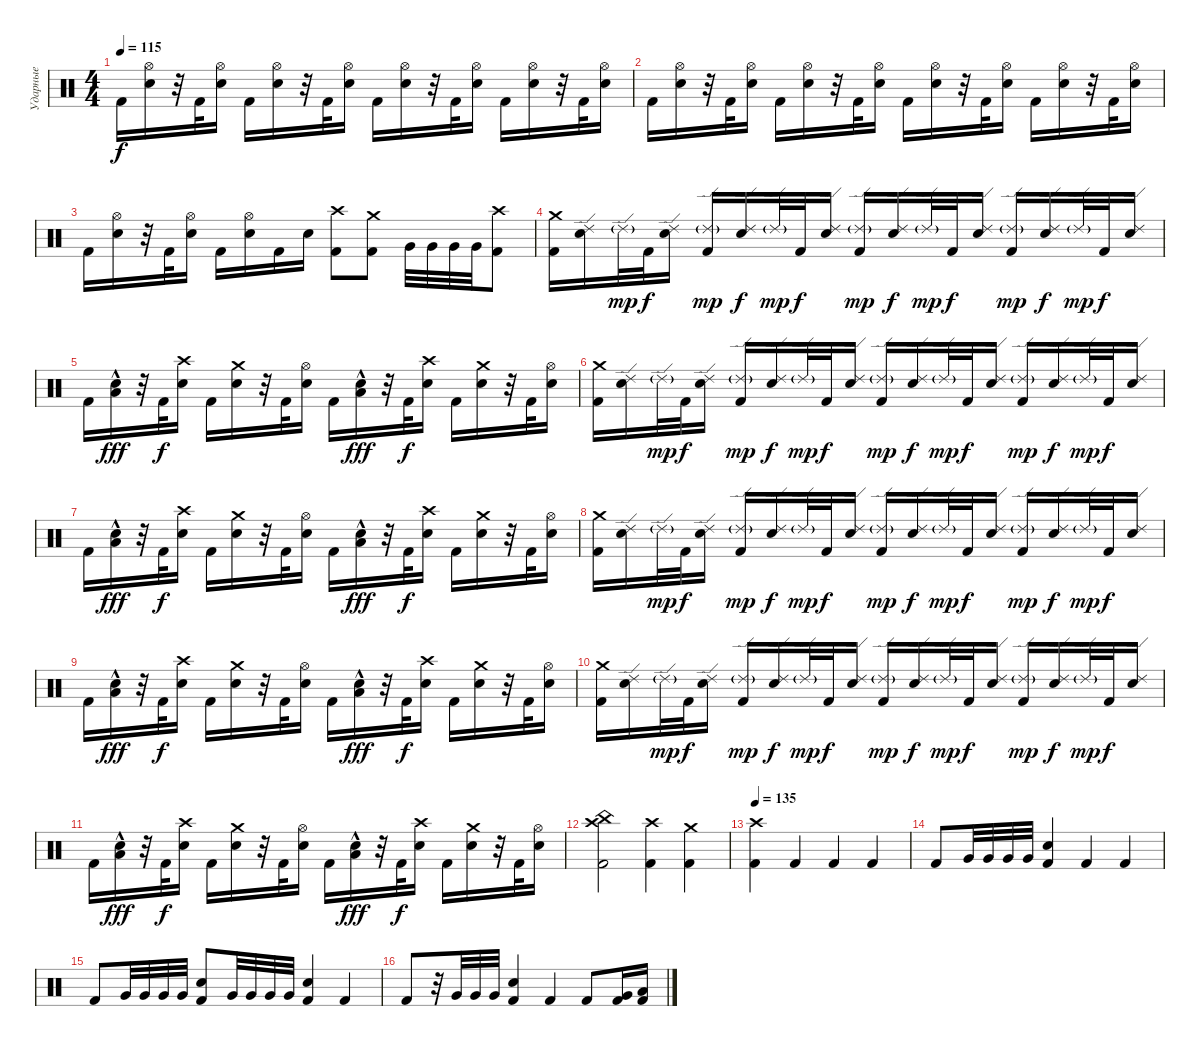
\track ("Ударные" "Ударные") {instrument percussion}
\staff {score}
\articulation defaults
\ts (4 4)
\tempo 115
\clef neutral
\ks c "Kick (hit) 2".16{dy f}
("Hi-Hat (open)" "Electric Snare (hit)").16 r.32 "Kick (hit) 2".32 ("Hi-Hat (open)" "Electric Snare (hit)").16 "Kick (hit) 2".16 ("Hi-Hat (open)" "Electric Snare (hit)").16 r.32 "Kick (hit) 2".32 ("Hi-Hat (open)" "Electric Snare (hit)").16 "Kick (hit) 2".16 ("Hi-Hat (open)" "Electric Snare (hit)").16 r.32 "Kick (hit) 2".32 ("Hi-Hat (open)" "Electric Snare (hit)").16 "Kick (hit) 2".16 ("Hi-Hat (open)" "Electric Snare (hit)").16 r.32 "Kick (hit) 2".32 ("Hi-Hat (open)" "Electric Snare (hit)").16 |
"Kick (hit) 2".16 ("Hi-Hat (open)" "Electric Snare (hit)").16 r.32 "Kick (hit) 2".32 ("Hi-Hat (open)" "Electric Snare (hit)").16 "Kick (hit) 2".16 ("Hi-Hat (open)" "Electric Snare (hit)").16 r.32 "Kick (hit) 2".32 ("Hi-Hat (open)" "Electric Snare (hit)").16 "Kick (hit) 2".16 ("Hi-Hat (open)" "Electric Snare (hit)").16 r.32 "Kick (hit) 2".32 ("Hi-Hat (open)" "Electric Snare (hit)").16 "Kick (hit) 2".16 ("Hi-Hat (open)" "Electric Snare (hit)").16 r.32 "Kick (hit) 2".32 ("Hi-Hat (open)" "Electric Snare (hit)").16 |
"Kick (hit) 2".16 ("Hi-Hat (open)" "Electric Snare (hit)").16 r.32 "Kick (hit) 2".32 ("Hi-Hat (open)" "Electric Snare (hit)").16 "Kick (hit) 2".16 ("Hi-Hat (open)" "Electric Snare (hit)").16 "Kick (hit) 2".16 "Electric Snare (hit)".16 ("Crash high (hit)" "Kick (hit) 2").8 ("Crash medium (hit)" "Kick (hit) 2").8 "Very Low Tom (hit)".32 "Very Low Tom (hit)".32 "Very Low Tom (hit)".32 "Very Low Tom (hit)".32 ("Crash high (hit)" "Kick (hit) 2").8 |
("Crash medium (hit)" "Kick (hit) 2").16 ("Ride (edge) 2" "Electric Snare (hit)").16 "Ride (edge) 2"{g}.32{dy mp} "Kick (hit) 2".32{dy f} ("Ride (edge) 2" "Electric Snare (hit)").16 ("Ride (edge) 2"{g} "Kick (hit) 2").16{dy mp} ("Ride (edge) 2" "Electric Snare (hit)").16{dy f} "Ride (edge) 2"{g}.32{dy mp} "Kick (hit) 2".32{dy f} ("Ride (edge) 2" "Electric Snare (hit)").16 ("Ride (edge) 2"{g} "Kick (hit) 2").16{dy mp} ("Ride (edge) 2" "Electric Snare (hit)").16{dy f} "Ride (edge) 2"{g}.32{dy mp} "Kick (hit) 2".32{dy f} ("Ride (edge) 2" "Electric Snare (hit)").16 ("Ride (edge) 2"{g} "Kick (hit) 2").16{dy mp} ("Ride (edge) 2" "Electric Snare (hit)").16{dy f} "Ride (edge) 2"{g}.32{dy mp} "Kick (hit) 2".32{dy f} ("Ride (edge) 2" "Electric Snare (hit)").16 |
"Kick (hit) 2".16 ("Low Floor Tom (hit)"{hac} "Electric Snare (hit)").16{dy fff} r.32 "Kick (hit) 2".32{dy f} ("Crash high (hit)" "Electric Snare (hit)").16 "Kick (hit) 2".16 ("Crash medium (hit)" "Electric Snare (hit)").16 r.32 "Kick (hit) 2".32 ("Hi-Hat (open)" "Electric Snare (hit)").16 "Kick (hit) 2".16 ("Low Floor Tom (hit)"{hac} "Electric Snare (hit)").16{dy fff} r.32 "Kick (hit) 2".32{dy f} ("Crash high (hit)" "Electric Snare (hit)").16 "Kick (hit) 2".16 ("Crash medium (hit)" "Electric Snare (hit)").16 r.32 "Kick (hit) 2".32 ("Hi-Hat (open)" "Electric Snare (hit)").16 |
("Crash medium (hit)" "Kick (hit) 2").16 ("Ride (edge) 2" "Electric Snare (hit)").16 "Ride (edge) 2"{g}.32{dy mp} "Kick (hit) 2".32{dy f} ("Ride (edge) 2" "Electric Snare (hit)").16 ("Ride (edge) 2"{g} "Kick (hit) 2").16{dy mp} ("Ride (edge) 2" "Electric Snare (hit)").16{dy f} "Ride (edge) 2"{g}.32{dy mp} "Kick (hit) 2".32{dy f} ("Ride (edge) 2" "Electric Snare (hit)").16 ("Ride (edge) 2"{g} "Kick (hit) 2").16{dy mp} ("Ride (edge) 2" "Electric Snare (hit)").16{dy f} "Ride (edge) 2"{g}.32{dy mp} "Kick (hit) 2".32{dy f} ("Ride (edge) 2" "Electric Snare (hit)").16 ("Ride (edge) 2"{g} "Kick (hit) 2").16{dy mp} ("Ride (edge) 2" "Electric Snare (hit)").16{dy f} "Ride (edge) 2"{g}.32{dy mp} "Kick (hit) 2".32{dy f} ("Ride (edge) 2" "Electric Snare (hit)").16 |
"Kick (hit) 2".16 ("Low Floor Tom (hit)"{hac} "Electric Snare (hit)").16{dy fff} r.32 "Kick (hit) 2".32{dy f} ("Crash high (hit)" "Electric Snare (hit)").16 "Kick (hit) 2".16 ("Crash medium (hit)" "Electric Snare (hit)").16 r.32 "Kick (hit) 2".32 ("Hi-Hat (open)" "Electric Snare (hit)").16 "Kick (hit) 2".16 ("Low Floor Tom (hit)"{hac} "Electric Snare (hit)").16{dy fff} r.32 "Kick (hit) 2".32{dy f} ("Crash high (hit)" "Electric Snare (hit)").16 "Kick (hit) 2".16 ("Crash medium (hit)" "Electric Snare (hit)").16 r.32 "Kick (hit) 2".32 ("Hi-Hat (open)" "Electric Snare (hit)").16 |
("Crash medium (hit)" "Kick (hit) 2").16 ("Ride (edge) 2" "Electric Snare (hit)").16 "Ride (edge) 2"{g}.32{dy mp} "Kick (hit) 2".32{dy f} ("Ride (edge) 2" "Electric Snare (hit)").16 ("Ride (edge) 2"{g} "Kick (hit) 2").16{dy mp} ("Ride (edge) 2" "Electric Snare (hit)").16{dy f} "Ride (edge) 2"{g}.32{dy mp} "Kick (hit) 2".32{dy f} ("Ride (edge) 2" "Electric Snare (hit)").16 ("Ride (edge) 2"{g} "Kick (hit) 2").16{dy mp} ("Ride (edge) 2" "Electric Snare (hit)").16{dy f} "Ride (edge) 2"{g}.32{dy mp} "Kick (hit) 2".32{dy f} ("Ride (edge) 2" "Electric Snare (hit)").16 ("Ride (edge) 2"{g} "Kick (hit) 2").16{dy mp} ("Ride (edge) 2" "Electric Snare (hit)").16{dy f} "Ride (edge) 2"{g}.32{dy mp} "Kick (hit) 2".32{dy f} ("Ride (edge) 2" "Electric Snare (hit)").16 |
"Kick (hit) 2".16 ("Low Floor Tom (hit)"{hac} "Electric Snare (hit)").16{dy fff} r.32 "Kick (hit) 2".32{dy f} ("Crash high (hit)" "Electric Snare (hit)").16 "Kick (hit) 2".16 ("Crash medium (hit)" "Electric Snare (hit)").16 r.32 "Kick (hit) 2".32 ("Hi-Hat (open)" "Electric Snare (hit)").16 "Kick (hit) 2".16 ("Low Floor Tom (hit)"{hac} "Electric Snare (hit)").16{dy fff} r.32 "Kick (hit) 2".32{dy f} ("Crash high (hit)" "Electric Snare (hit)").16 "Kick (hit) 2".16 ("Crash medium (hit)" "Electric Snare (hit)").16 r.32 "Kick (hit) 2".32 ("Hi-Hat (open)" "Electric Snare (hit)").16 |
("Crash medium (hit)" "Kick (hit) 2").16 ("Ride (edge) 2" "Electric Snare (hit)").16 "Ride (edge) 2"{g}.32{dy mp} "Kick (hit) 2".32{dy f} ("Ride (edge) 2" "Electric Snare (hit)").16 ("Ride (edge) 2"{g} "Kick (hit) 2").16{dy mp} ("Ride (edge) 2" "Electric Snare (hit)").16{dy f} "Ride (edge) 2"{g}.32{dy mp} "Kick (hit) 2".32{dy f} ("Ride (edge) 2" "Electric Snare (hit)").16 ("Ride (edge) 2"{g} "Kick (hit) 2").16{dy mp} ("Ride (edge) 2" "Electric Snare (hit)").16{dy f} "Ride (edge) 2"{g}.32{dy mp} "Kick (hit) 2".32{dy f} ("Ride (edge) 2" "Electric Snare (hit)").16 ("Ride (edge) 2"{g} "Kick (hit) 2").16{dy mp} ("Ride (edge) 2" "Electric Snare (hit)").16{dy f} "Ride (edge) 2"{g}.32{dy mp} "Kick (hit) 2".32{dy f} ("Ride (edge) 2" "Electric Snare (hit)").16 |
"Kick (hit) 2".16 ("Low Floor Tom (hit)"{hac} "Electric Snare (hit)").16{dy fff} r.32 "Kick (hit) 2".32{dy f} ("Crash high (hit)" "Electric Snare (hit)").16 "Kick (hit) 2".16 ("Crash medium (hit)" "Electric Snare (hit)").16 r.32 "Kick (hit) 2".32 ("Hi-Hat (open)" "Electric Snare (hit)").16 "Kick (hit) 2".16 ("Low Floor Tom (hit)"{hac} "Electric Snare (hit)").16{dy fff} r.32 "Kick (hit) 2".32{dy f} ("Crash high (hit)" "Electric Snare (hit)").16 "Kick (hit) 2".16 ("Crash medium (hit)" "Electric Snare (hit)").16 r.32 "Kick (hit) 2".32 ("Hi-Hat (open)" "Electric Snare (hit)").16 |
("Crash high (hit)" "China (hit)" "Kick (hit) 2").2 ("Crash high (hit)" "Kick (hit) 2").4 ("Crash medium (hit)" "Kick (hit) 2").4 |
\tempo 135
("Crash high (hit)" "Kick (hit) 2").4 "Kick (hit) 2".4 "Kick (hit) 2".4 "Kick (hit) 2".4 |
"Kick (hit) 2".8 "Very Low Tom (hit)".32 "Very Low Tom (hit)".32 "Very Low Tom (hit)".32 "Very Low Tom (hit)".32 ("Electric Snare (hit)" "Kick (hit) 2").4 "Kick (hit) 2".4 "Kick (hit) 2".4 |
"Kick (hit) 2".8 "Very Low Tom (hit)".32 "Very Low Tom (hit)".32 "Very Low Tom (hit)".32 "Very Low Tom (hit)".32 ("Electric Snare (hit)" "Kick (hit) 2").8 "Very Low Tom (hit)".32 "Very Low Tom (hit)".32 "Very Low Tom (hit)".32 "Very Low Tom (hit)".32 ("Electric Snare (hit)" "Kick (hit) 2").4 "Kick (hit) 2".4 |
"Kick (hit) 2".8 r.32 "Very Low Tom (hit)".32 "Very Low Tom (hit)".32 "Very Low Tom (hit)".32 ("Electric Snare (hit)" "Kick (hit) 2").4 "Kick (hit) 2".4 "Kick (hit) 2".8 ("Very Low Tom (hit)" "Kick (hit) 2").16 ("Low Floor Tom (hit)" "Kick (hit) 2").16
